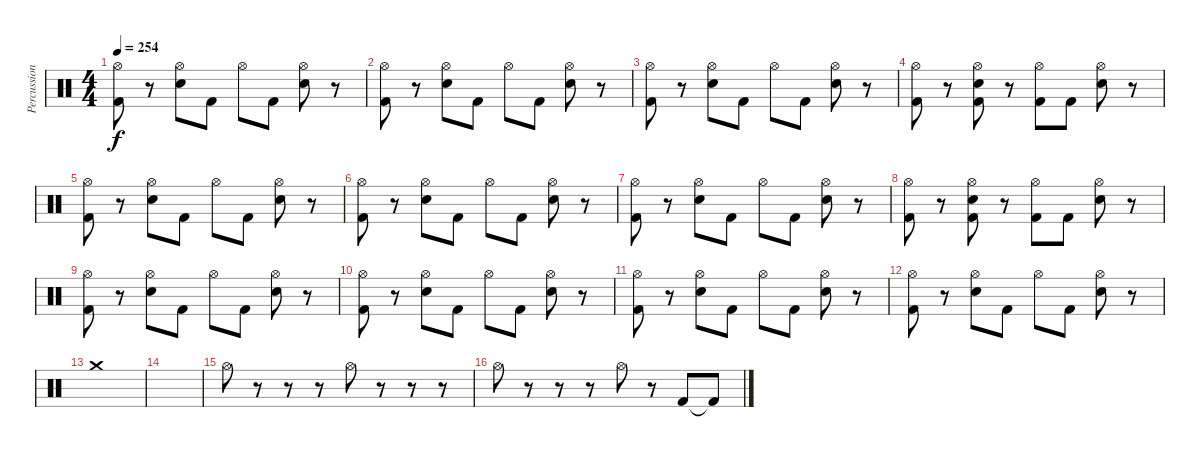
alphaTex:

\track ("Percussion" "Percussion") {instrument percussion}
\staff {score}
\articulation defaults
\ts (4 4)
\tempo 254
\clef neutral
\ks c
("Hi-Hat (open)" "Kick (hit) 2").8{dy f} r.8 ("Hi-Hat (open)" "Electric Snare (hit)").8 "Kick (hit) 2".8 "Hi-Hat (open)".8 "Kick (hit) 2".8 ("Hi-Hat (open)" "Electric Snare (hit)").8 r.8 |
("Hi-Hat (open)" "Kick (hit) 2").8 r.8 ("Hi-Hat (open)" "Electric Snare (hit)").8 "Kick (hit) 2".8 "Hi-Hat (open)".8 "Kick (hit) 2".8 ("Hi-Hat (open)" "Electric Snare (hit)").8 r.8 |
("Hi-Hat (open)" "Kick (hit) 2").8 r.8 ("Hi-Hat (open)" "Electric Snare (hit)").8 "Kick (hit) 2".8 "Hi-Hat (open)".8 "Kick (hit) 2".8 ("Hi-Hat (open)" "Electric Snare (hit)").8 r.8 |
("Hi-Hat (open)" "Kick (hit) 2").8 r.8 ("Hi-Hat (open)" "Electric Snare (hit)" "Kick (hit) 2").8 r.8 ("Hi-Hat (open)" "Kick (hit) 2").8 "Kick (hit) 2".8 ("Hi-Hat (open)" "Electric Snare (hit)").8 r.8 |
("Hi-Hat (open)" "Kick (hit) 2").8 r.8 ("Hi-Hat (open)" "Electric Snare (hit)").8 "Kick (hit) 2".8 "Hi-Hat (open)".8 "Kick (hit) 2".8 ("Hi-Hat (open)" "Electric Snare (hit)").8 r.8 |
("Hi-Hat (open)" "Kick (hit) 2").8 r.8 ("Hi-Hat (open)" "Electric Snare (hit)").8 "Kick (hit) 2".8 "Hi-Hat (open)".8 "Kick (hit) 2".8 ("Hi-Hat (open)" "Electric Snare (hit)").8 r.8 |
("Hi-Hat (open)" "Kick (hit) 2").8 r.8 ("Hi-Hat (open)" "Electric Snare (hit)").8 "Kick (hit) 2".8 "Hi-Hat (open)".8 "Kick (hit) 2".8 ("Hi-Hat (open)" "Electric Snare (hit)").8 r.8 |
("Hi-Hat (open)" "Kick (hit) 2").8 r.8 ("Hi-Hat (open)" "Electric Snare (hit)" "Kick (hit) 2").8 r.8 ("Hi-Hat (open)" "Kick (hit) 2").8 "Kick (hit) 2".8 ("Hi-Hat (open)" "Electric Snare (hit)").8 r.8 |
("Hi-Hat (open)" "Kick (hit) 2").8 r.8 ("Hi-Hat (open)" "Electric Snare (hit)").8 "Kick (hit) 2".8 "Hi-Hat (open)".8 "Kick (hit) 2".8 ("Hi-Hat (open)" "Electric Snare (hit)").8 r.8 |
("Hi-Hat (open)" "Kick (hit) 2").8 r.8 ("Hi-Hat (open)" "Electric Snare (hit)").8 "Kick (hit) 2".8 "Hi-Hat (open)".8 "Kick (hit) 2".8 ("Hi-Hat (open)" "Electric Snare (hit)").8 r.8 |
("Hi-Hat (open)" "Kick (hit) 2").8 r.8 ("Hi-Hat (open)" "Electric Snare (hit)").8 "Kick (hit) 2".8 "Hi-Hat (open)".8 "Kick (hit) 2".8 ("Hi-Hat (open)" "Electric Snare (hit)").8 r.8 |
("Hi-Hat (open)" "Kick (hit) 2").8 r.8 ("Hi-Hat (open)" "Electric Snare (hit)").8 "Kick (hit) 2".8 "Hi-Hat (open)".8 "Kick (hit) 2".8 ("Hi-Hat (open)" "Electric Snare (hit)").8 r.8 |
"Crash medium (hit)".1 |
|
"Hi-Hat (open)".8 r.8 r.8 r.8 "Hi-Hat (open)".8 r.8 r.8 r.8 |
"Hi-Hat (open)".8 r.8 r.8 r.8 "Hi-Hat (open)".8 r.8 "Kick (hit) 2".8 "Kick (hit) 2"{t}.8
